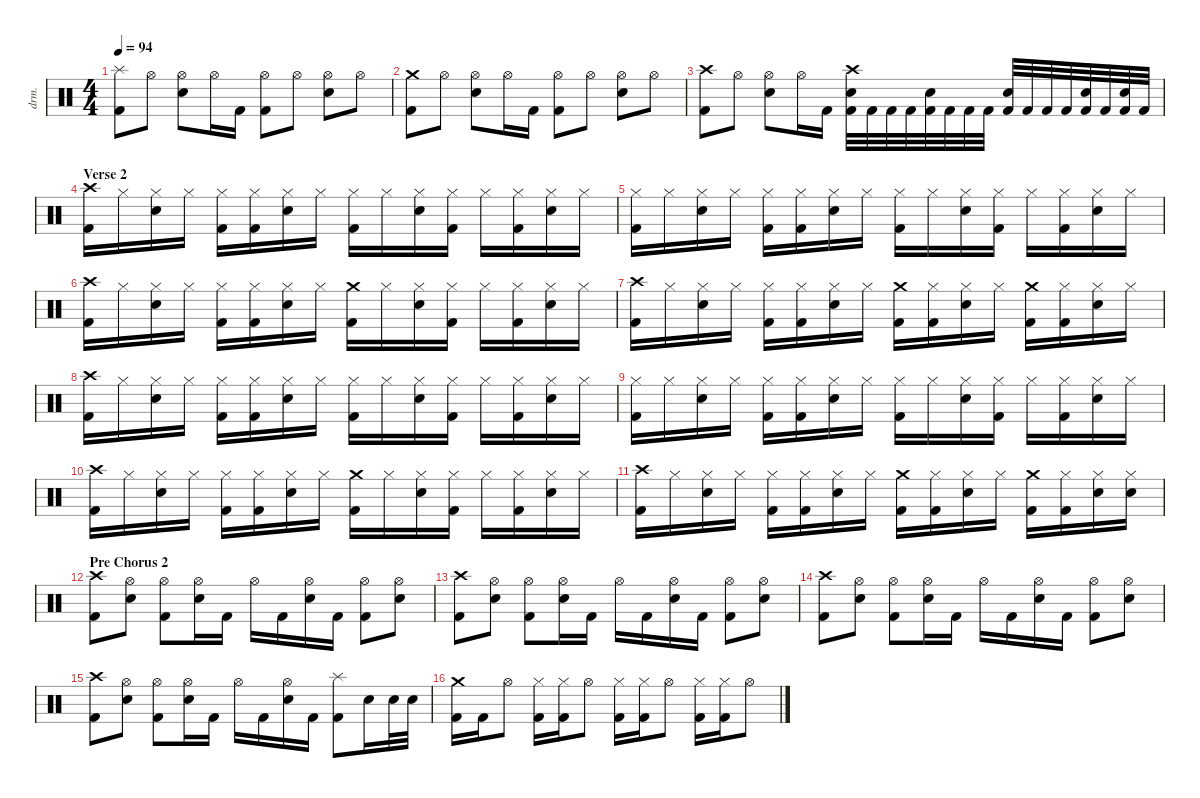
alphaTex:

\defaultSystemsLayout 4
\hideDynamics
\bracketExtendMode nobrackets
\track ("Drums" "drm.") {instrument percussion}
\staff {score}
\articulation defaults
\ts (4 4)
\tempo 94
\clef neutral
\ks c
("Splash (hit)" "Kick (hit) 2").8{dy f} "Hi-Hat (open)".8 ("Hi-Hat (open)" "Snare (hit) 2").8 "Hi-Hat (open)".16 "Kick (hit) 2".16 ("Hi-Hat (open)" "Kick (hit) 2").8 "Hi-Hat (open)".8 ("Hi-Hat (open)" "Snare (hit) 2").8 "Hi-Hat (open)".8 |
("Crash medium (hit)" "Kick (hit) 2").8 "Hi-Hat (open)".8 ("Hi-Hat (open)" "Snare (hit) 2").8 "Hi-Hat (open)".16 "Kick (hit) 2".16 ("Hi-Hat (open)" "Kick (hit) 2").8 "Hi-Hat (open)".8 ("Hi-Hat (open)" "Snare (hit) 2").8 "Hi-Hat (open)".8 |
("Crash high (hit)" "Kick (hit) 2").8 "Hi-Hat (open)".8 ("Hi-Hat (open)" "Snare (hit) 2").8 "Hi-Hat (open)".16 "Kick (hit) 2".16 ("Crash high (hit)" "Snare (hit) 2" "Kick (hit) 2").32 "Kick (hit) 2".32 "Kick (hit) 2".32 "Kick (hit) 2".32 ("Snare (hit) 2" "Kick (hit) 2").32 "Kick (hit) 2".32 "Kick (hit) 2".32 "Kick (hit) 2".32 ("Snare (hit) 2" "Kick (hit) 2").32 "Kick (hit) 2".32 "Kick (hit) 2".32 "Kick (hit) 2".32 ("Snare (hit) 2" "Kick (hit) 2").32 "Kick (hit) 2".32 ("Snare (hit) 2" "Kick (hit) 2").32 "Kick (hit) 2".32 |
\section ("" "Verse 2")
("Crash high (hit)" "Kick (hit) 2").16 "Hi-Hat (closed)".16 ("Hi-Hat (closed)" "Snare (hit) 2").16 "Hi-Hat (closed)".16 ("Hi-Hat (closed)" "Kick (hit) 2").16 ("Hi-Hat (closed)" "Kick (hit) 2").16 ("Hi-Hat (closed)" "Snare (hit) 2").16 "Hi-Hat (closed)".16 ("Hi-Hat (closed)" "Kick (hit) 2").16 "Hi-Hat (closed)".16 ("Hi-Hat (closed)" "Snare (hit) 2").16 ("Hi-Hat (closed)" "Kick (hit) 2").16 "Hi-Hat (closed)".16 ("Hi-Hat (closed)" "Kick (hit) 2").16 ("Hi-Hat (closed)" "Snare (hit) 2").16 "Hi-Hat (closed)".16 |
("Hi-Hat (closed)" "Kick (hit) 2").16 "Hi-Hat (closed)".16 ("Hi-Hat (closed)" "Snare (hit) 2").16 "Hi-Hat (closed)".16 ("Hi-Hat (closed)" "Kick (hit) 2").16 ("Hi-Hat (closed)" "Kick (hit) 2").16 ("Hi-Hat (closed)" "Snare (hit) 2").16 "Hi-Hat (closed)".16 ("Hi-Hat (closed)" "Kick (hit) 2").16 "Hi-Hat (closed)".16 ("Hi-Hat (closed)" "Snare (hit) 2").16 ("Hi-Hat (closed)" "Kick (hit) 2").16 "Hi-Hat (closed)".16 ("Hi-Hat (closed)" "Kick (hit) 2").16 ("Hi-Hat (closed)" "Snare (hit) 2").16 "Hi-Hat (closed)".16 |
("Crash high (hit)" "Kick (hit) 2").16 "Hi-Hat (closed)".16 ("Hi-Hat (closed)" "Snare (hit) 2").16 "Hi-Hat (closed)".16 ("Hi-Hat (closed)" "Kick (hit) 2").16 ("Hi-Hat (closed)" "Kick (hit) 2").16 ("Hi-Hat (closed)" "Snare (hit) 2").16 "Hi-Hat (closed)".16 ("Crash medium (hit)" "Kick (hit) 2").16 "Hi-Hat (closed)".16 ("Hi-Hat (closed)" "Snare (hit) 2").16 ("Hi-Hat (closed)" "Kick (hit) 2").16 "Hi-Hat (closed)".16 ("Hi-Hat (closed)" "Kick (hit) 2").16 ("Hi-Hat (closed)" "Snare (hit) 2").16 "Hi-Hat (closed)".16 |
("Crash high (hit)" "Kick (hit) 2").16 "Hi-Hat (closed)".16 ("Hi-Hat (closed)" "Snare (hit) 2").16 "Hi-Hat (closed)".16 ("Hi-Hat (closed)" "Kick (hit) 2").16 ("Hi-Hat (closed)" "Kick (hit) 2").16 ("Hi-Hat (closed)" "Snare (hit) 2").16 "Hi-Hat (closed)".16 ("Crash medium (hit)" "Kick (hit) 2").16 ("Hi-Hat (closed)" "Kick (hit) 2").16 ("Hi-Hat (closed)" "Snare (hit) 2").16 "Hi-Hat (closed)".16 ("Crash medium (hit)" "Kick (hit) 2").16 ("Hi-Hat (closed)" "Kick (hit) 2").16 ("Hi-Hat (closed)" "Snare (hit) 2").16 "Hi-Hat (closed)".16 |
("Crash high (hit)" "Kick (hit) 2").16 "Hi-Hat (closed)".16 ("Hi-Hat (closed)" "Snare (hit) 2").16 "Hi-Hat (closed)".16 ("Hi-Hat (closed)" "Kick (hit) 2").16 ("Hi-Hat (closed)" "Kick (hit) 2").16 ("Hi-Hat (closed)" "Snare (hit) 2").16 "Hi-Hat (closed)".16 ("Hi-Hat (closed)" "Kick (hit) 2").16 "Hi-Hat (closed)".16 ("Hi-Hat (closed)" "Snare (hit) 2").16 ("Hi-Hat (closed)" "Kick (hit) 2").16 "Hi-Hat (closed)".16 ("Hi-Hat (closed)" "Kick (hit) 2").16 ("Hi-Hat (closed)" "Snare (hit) 2").16 "Hi-Hat (closed)".16 |
("Hi-Hat (closed)" "Kick (hit) 2").16 "Hi-Hat (closed)".16 ("Hi-Hat (closed)" "Snare (hit) 2").16 "Hi-Hat (closed)".16 ("Hi-Hat (closed)" "Kick (hit) 2").16 ("Hi-Hat (closed)" "Kick (hit) 2").16 ("Hi-Hat (closed)" "Snare (hit) 2").16 "Hi-Hat (closed)".16 ("Hi-Hat (closed)" "Kick (hit) 2").16 "Hi-Hat (closed)".16 ("Hi-Hat (closed)" "Snare (hit) 2").16 ("Hi-Hat (closed)" "Kick (hit) 2").16 "Hi-Hat (closed)".16 ("Hi-Hat (closed)" "Kick (hit) 2").16 ("Hi-Hat (closed)" "Snare (hit) 2").16 "Hi-Hat (closed)".16 |
("Crash high (hit)" "Kick (hit) 2").16 "Hi-Hat (closed)".16 ("Hi-Hat (closed)" "Snare (hit) 2").16 "Hi-Hat (closed)".16 ("Hi-Hat (closed)" "Kick (hit) 2").16 ("Hi-Hat (closed)" "Kick (hit) 2").16 ("Hi-Hat (closed)" "Snare (hit) 2").16 "Hi-Hat (closed)".16 ("Crash medium (hit)" "Kick (hit) 2").16 "Hi-Hat (closed)".16 ("Hi-Hat (closed)" "Snare (hit) 2").16 ("Hi-Hat (closed)" "Kick (hit) 2").16 "Hi-Hat (closed)".16 ("Hi-Hat (closed)" "Kick (hit) 2").16 ("Hi-Hat (closed)" "Snare (hit) 2").16 "Hi-Hat (closed)".16 |
("Crash high (hit)" "Kick (hit) 2").16 "Hi-Hat (closed)".16 ("Hi-Hat (closed)" "Snare (hit) 2").16 "Hi-Hat (closed)".16 ("Hi-Hat (closed)" "Kick (hit) 2").16 ("Hi-Hat (closed)" "Kick (hit) 2").16 ("Hi-Hat (closed)" "Snare (hit) 2").16 "Hi-Hat (closed)".16 ("Crash medium (hit)" "Kick (hit) 2").16 ("Hi-Hat (closed)" "Kick (hit) 2").16 ("Hi-Hat (closed)" "Snare (hit) 2").16 "Hi-Hat (closed)".16 ("Crash medium (hit)" "Kick (hit) 2").16 ("Hi-Hat (closed)" "Kick (hit) 2").16 ("Hi-Hat (closed)" "Snare (hit) 2").16 ("Hi-Hat (closed)" "Snare (hit) 2").16 |
\section ("" "Pre Chorus 2")
("Crash high (hit)" "Kick (hit) 2").8 ("Hi-Hat (open)" "Snare (hit) 2").8 ("Hi-Hat (open)" "Kick (hit) 2").8 ("Hi-Hat (open)" "Snare (hit) 2").16 "Kick (hit) 2".16 "Hi-Hat (open)".16 "Kick (hit) 2".16 ("Hi-Hat (open)" "Snare (hit) 2").16 "Kick (hit) 2".16 ("Hi-Hat (open)" "Kick (hit) 2").8 ("Hi-Hat (open)" "Snare (hit) 2").8 |
("Crash high (hit)" "Kick (hit) 2").8 ("Hi-Hat (open)" "Snare (hit) 2").8 ("Hi-Hat (open)" "Kick (hit) 2").8 ("Hi-Hat (open)" "Snare (hit) 2").16 "Kick (hit) 2".16 "Hi-Hat (open)".16 "Kick (hit) 2".16 ("Hi-Hat (open)" "Snare (hit) 2").16 "Kick (hit) 2".16 ("Hi-Hat (open)" "Kick (hit) 2").8 ("Hi-Hat (open)" "Snare (hit) 2").8 |
("Crash high (hit)" "Kick (hit) 2").8 ("Hi-Hat (open)" "Snare (hit) 2").8 ("Hi-Hat (open)" "Kick (hit) 2").8 ("Hi-Hat (open)" "Snare (hit) 2").16 "Kick (hit) 2".16 "Hi-Hat (open)".16 "Kick (hit) 2".16 ("Hi-Hat (open)" "Snare (hit) 2").16 "Kick (hit) 2".16 ("Hi-Hat (open)" "Kick (hit) 2").8 ("Hi-Hat (open)" "Snare (hit) 2").8 |
("Crash high (hit)" "Kick (hit) 2").8 ("Hi-Hat (open)" "Snare (hit) 2").8 ("Hi-Hat (open)" "Kick (hit) 2").8 ("Hi-Hat (open)" "Snare (hit) 2").16 "Kick (hit) 2".16 "Hi-Hat (open)".16 "Kick (hit) 2".16 ("Hi-Hat (open)" "Snare (hit) 2").16 "Kick (hit) 2".16 ("Splash (hit)" "Kick (hit) 2").8 "Snare (hit) 2".16 "Snare (hit) 2".32 "Snare (hit) 2".32 |
("Crash medium (hit)" "Kick (hit) 2").16 "Kick (hit) 2".16 "Hi-Hat (open)".8 ("Hi-Hat (closed)" "Kick (hit) 2").16 ("Hi-Hat (closed)" "Kick (hit) 2").16 "Hi-Hat (open)".8 ("Hi-Hat (closed)" "Kick (hit) 2").16 ("Hi-Hat (closed)" "Kick (hit) 2").16 "Hi-Hat (open)".8 ("Hi-Hat (closed)" "Kick (hit) 2").16 ("Hi-Hat (closed)" "Kick (hit) 2").16 "Hi-Hat (open)".8
